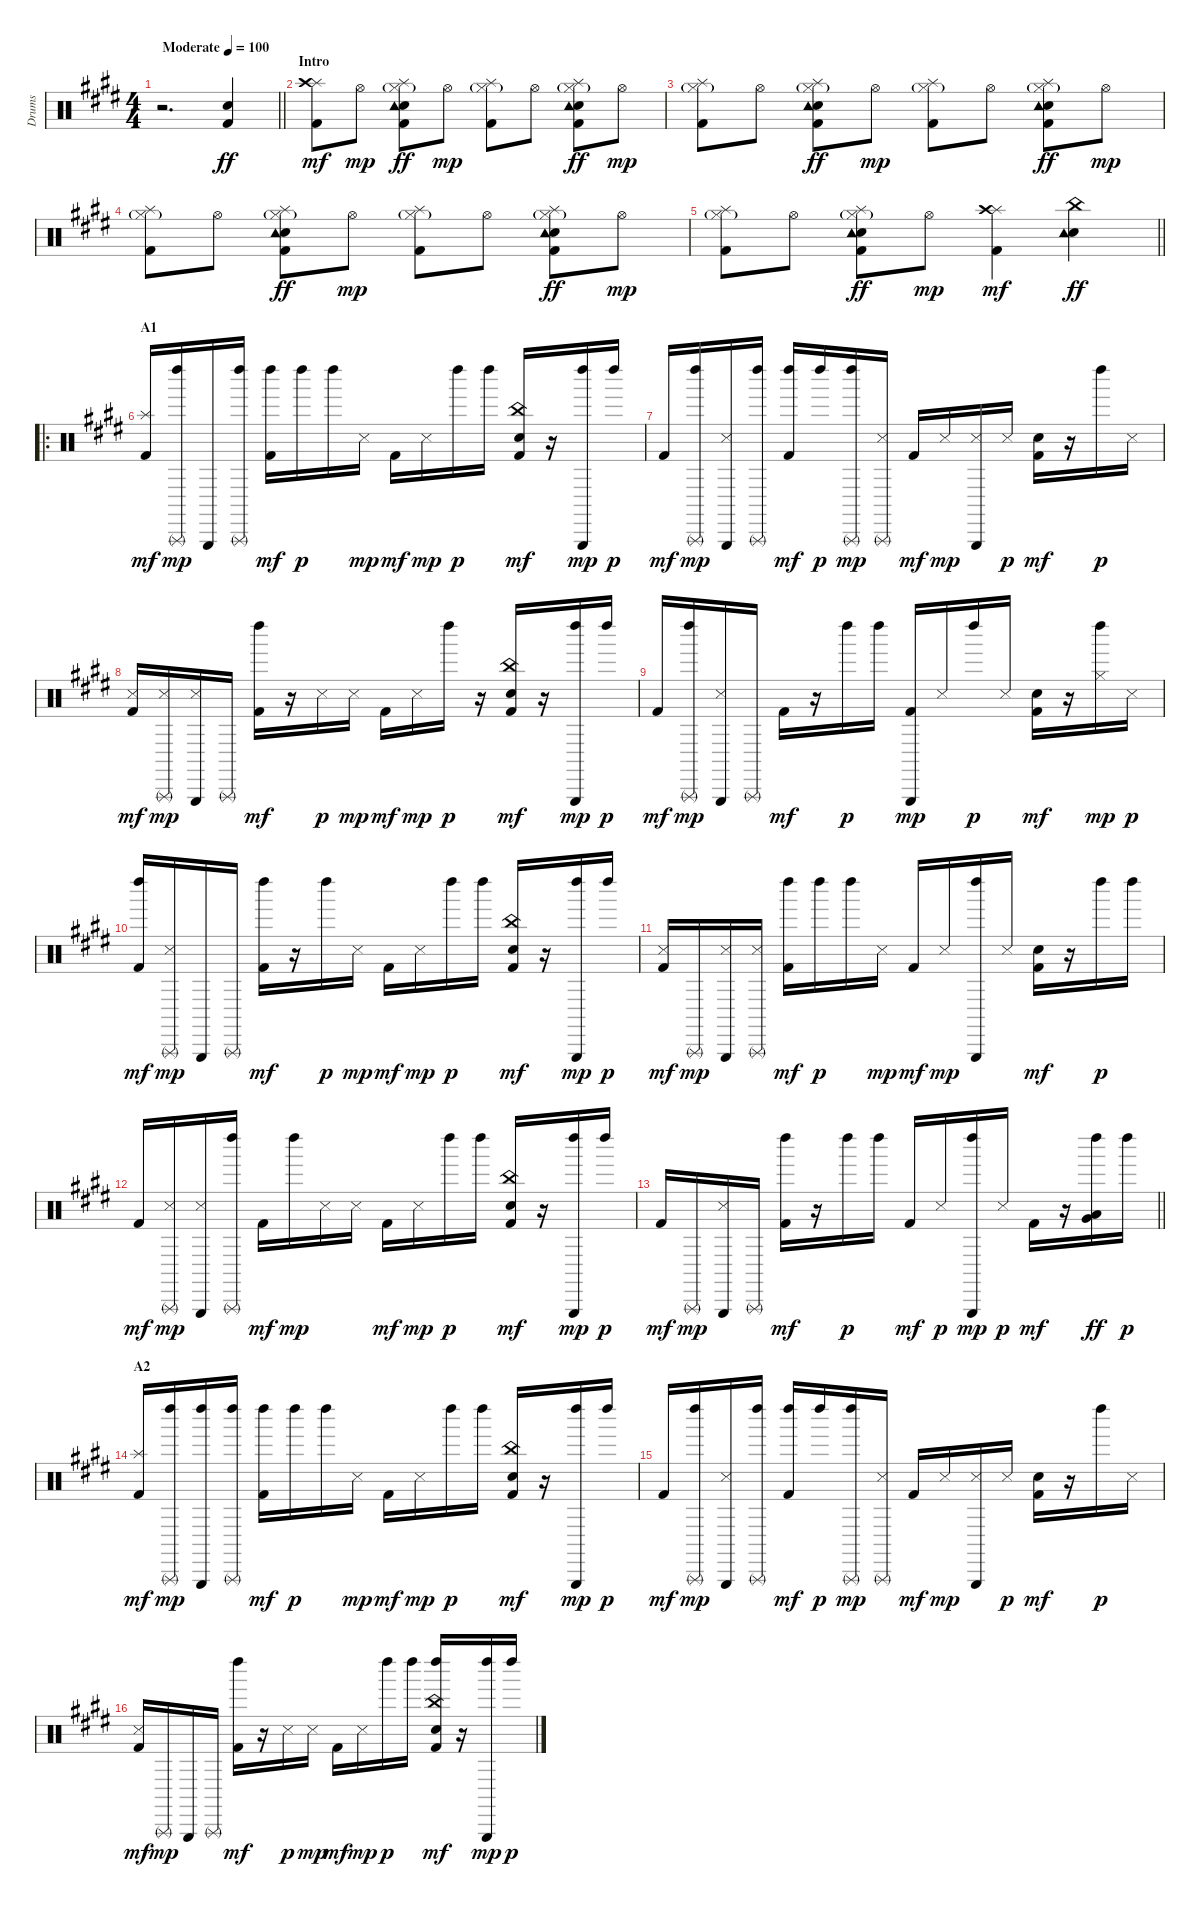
\track ("Drums" "Drums") {instrument percussion}
\staff {score}
\articulation defaults
\ts (4 4)
\tempo (100 "Moderate")
\clef neutral
\barLineRight lightlight
\ks e
r.2{d dy ff} ("Hand Clap (hit)" "Kick (hit) 2").4 |
\section ("" "Intro")
("Splash (hit)" "Crash high (hit)" "Kick (hit) 2").8{dy mf} "Hi-Hat (open)".8{dy mp} ("Splash (hit)" "Hi-Hat (closed)"{g} "Hand Clap (hit)" "Kick (hit) 2" "Tambourine (hit)").8{dy ff} "Hi-Hat (open)".8{dy mp} ("Splash (hit)" "Hi-Hat (closed)"{g} "Kick (hit) 2").8 "Hi-Hat (open)".8 ("Splash (hit)" "Hi-Hat (closed)"{g} "Hand Clap (hit)" "Kick (hit) 2" "Tambourine (hit)").8{dy ff} "Hi-Hat (open)".8{dy mp} |
("Splash (hit)" "Hi-Hat (closed)"{g} "Kick (hit) 2").8 "Hi-Hat (open)".8 ("Splash (hit)" "Hi-Hat (closed)"{g} "Hand Clap (hit)" "Kick (hit) 2" "Tambourine (hit)").8{dy ff} "Hi-Hat (open)".8{dy mp} ("Splash (hit)" "Hi-Hat (closed)"{g} "Kick (hit) 2").8 "Hi-Hat (open)".8 ("Splash (hit)" "Hi-Hat (closed)"{g} "Hand Clap (hit)" "Kick (hit) 2" "Tambourine (hit)").8{dy ff} "Hi-Hat (open)".8{dy mp} |
("Splash (hit)" "Hi-Hat (closed)"{g} "Kick (hit) 2").8 "Hi-Hat (open)".8 ("Splash (hit)" "Hi-Hat (closed)"{g} "Hand Clap (hit)" "Kick (hit) 2" "Tambourine (hit)").8{dy ff} "Hi-Hat (open)".8{dy mp} ("Splash (hit)" "Hi-Hat (closed)"{g} "Kick (hit) 2").8 "Hi-Hat (open)".8 ("Splash (hit)" "Hi-Hat (closed)"{g} "Hand Clap (hit)" "Kick (hit) 2" "Tambourine (hit)").8{dy ff} "Hi-Hat (open)".8{dy mp} |
\barLineRight lightlight
("Splash (hit)" "Hi-Hat (closed)"{g} "Kick (hit) 2").8 "Hi-Hat (open)".8 ("Splash (hit)" "Hi-Hat (closed)"{g} "Hand Clap (hit)" "Kick (hit) 2" "Tambourine (hit)").8{dy ff} "Hi-Hat (open)".8{dy mp} ("Splash (hit)" "Crash high (hit)" "Kick (hit) 2").4{dy mf} ("China (hit)" "Hand Clap (hit)" "Tambourine (hit)").4{dy ff} |
\ro
\section ("" "A1")
("Splash (hit)" "Kick (hit) 2").16{dy mf} ("Left Maraca (hit)" "Triangle (rnute)").16{dy mp} "Triangle (hit)".16 ("Left Maraca (hit)" "Triangle (rnute)").16 ("Left Maraca (hit)" "Kick (hit) 2").16{dy mf} "Left Maraca (hit)".16{dy p} "Left Maraca (hit)".16 "Metronome (hit)".16{dy mp} "Kick (hit) 2".16{dy mf} "Metronome (hit)".16{dy mp} "Left Maraca (hit)".16{dy p} "Left Maraca (hit)".16 ("China (hit)" "Hand Clap (hit)" "Kick (hit) 2").16{dy mf} r.16 ("Left Maraca (hit)" "Triangle (hit)").16{dy mp} "Left Maraca (hit)".16{dy p} |
"Kick (hit) 2".16{dy mf} ("Left Maraca (hit)" "Triangle (rnute)").16{dy mp} ("Metronome (hit)" "Triangle (hit)").16 ("Left Maraca (hit)" "Triangle (rnute)").16 ("Left Maraca (hit)" "Kick (hit) 2").16{dy mf} "Left Maraca (hit)".16{dy p} ("Left Maraca (hit)" "Triangle (rnute)").16{dy mp} ("Metronome (hit)" "Triangle (rnute)").16 "Kick (hit) 2".16{dy mf} "Metronome (hit)".16{dy mp} ("Metronome (hit)" "Triangle (hit)").16 "Metronome (hit)".16{dy p} ("Hand Clap (hit)" "Kick (hit) 2").16{dy mf} r.16 "Left Maraca (hit)".16{dy p} "Metronome (hit)".16 |
("Metronome (hit)" "Kick (hit) 2").16{dy mf} ("Metronome (hit)" "Triangle (rnute)").16{dy mp} ("Metronome (hit)" "Triangle (hit)").16 "Triangle (rnute)".16 ("Left Maraca (hit)" "Kick (hit) 2").16{dy mf} r.16 "Metronome (hit)".16{dy p} "Metronome (hit)".16{dy mp} "Kick (hit) 2".16{dy mf} "Metronome (hit)".16{dy mp} "Left Maraca (hit)".16{dy p} r.16 ("China (hit)" "Hand Clap (hit)" "Kick (hit) 2").16{dy mf} r.16 ("Left Maraca (hit)" "Triangle (hit)").16{dy mp} "Left Maraca (hit)".16{dy p} |
"Kick (hit) 2".16{dy mf} ("Left Maraca (hit)" "Triangle (rnute)").16{dy mp} ("Metronome (hit)" "Triangle (hit)").16 "Triangle (rnute)".16 "Kick (hit) 2".16{dy mf} r.16 "Left Maraca (hit)".16{dy p} "Left Maraca (hit)".16 ("Kick (hit) 2" "Triangle (hit)").16{dy mp} "Metronome (hit)".16 "Left Maraca (hit)".16{dy p} "Metronome (hit)".16 ("Hand Clap (hit)" "Kick (hit) 2").16{dy mf} r.16 ("Left Maraca (hit)" "Hi-Hat (closed)").16{dy mp} "Metronome (hit)".16{dy p} |
("Left Maraca (hit)" "Kick (hit) 2").16{dy mf} ("Metronome (hit)" "Triangle (rnute)").16{dy mp} "Triangle (hit)".16 "Triangle (rnute)".16 ("Left Maraca (hit)" "Kick (hit) 2").16{dy mf} r.16 "Left Maraca (hit)".16{dy p} "Metronome (hit)".16{dy mp} "Kick (hit) 2".16{dy mf} "Metronome (hit)".16{dy mp} "Left Maraca (hit)".16{dy p} "Left Maraca (hit)".16 ("China (hit)" "Hand Clap (hit)" "Kick (hit) 2").16{dy mf} r.16 ("Left Maraca (hit)" "Triangle (hit)").16{dy mp} "Left Maraca (hit)".16{dy p} |
("Metronome (hit)" "Kick (hit) 2").16{dy mf} "Triangle (rnute)".16{dy mp} ("Metronome (hit)" "Triangle (hit)").16 ("Metronome (hit)" "Triangle (rnute)").16 ("Left Maraca (hit)" "Kick (hit) 2").16{dy mf} "Left Maraca (hit)".16{dy p} "Left Maraca (hit)".16 "Metronome (hit)".16{dy mp} "Kick (hit) 2".16{dy mf} "Metronome (hit)".16{dy mp} ("Left Maraca (hit)" "Triangle (hit)").16 "Metronome (hit)".16 ("Hand Clap (hit)" "Kick (hit) 2").16{dy mf} r.16 "Left Maraca (hit)".16{dy p} "Left Maraca (hit)".16 |
"Kick (hit) 2".16{dy mf} ("Metronome (hit)" "Triangle (rnute)").16{dy mp} ("Metronome (hit)" "Triangle (hit)").16 ("Left Maraca (hit)" "Triangle (rnute)").16 "Kick (hit) 2".16{dy mf} "Left Maraca (hit)".16{dy mp} "Metronome (hit)".16 "Metronome (hit)".16 "Kick (hit) 2".16{dy mf} "Metronome (hit)".16{dy mp} "Left Maraca (hit)".16{dy p} "Left Maraca (hit)".16 ("China (hit)" "Hand Clap (hit)" "Kick (hit) 2").16{dy mf} r.16 ("Left Maraca (hit)" "Triangle (hit)").16{dy mp} "Left Maraca (hit)".16{dy p} |
\barLineRight lightlight "Kick (hit) 2".16{dy mf} "Triangle (rnute)".16{dy mp}
("Metronome (hit)" "Triangle (hit)").16 "Triangle (rnute)".16 ("Left Maraca (hit)" "Kick (hit) 2").16{dy mf} r.16 "Left Maraca (hit)".16{dy p} "Left Maraca (hit)".16 "Kick (hit) 2".16{dy mf} "Metronome (hit)".16{dy p} ("Left Maraca (hit)" "Triangle (hit)").16{dy mp} "Metronome (hit)".16{dy p} "Kick (hit) 2".16{dy mf} r.16 ("Left Maraca (hit)" "Low Tom (hit)" "Very Low Tom (hit)").16{dy ff} "Left Maraca (hit)".16{dy p} |
\section ("" "A2")
("Splash (hit)" "Kick (hit) 2").16{dy mf} ("Left Maraca (hit)" "Triangle (rnute)").16{dy mp} ("Left Maraca (hit)" "Triangle (hit)").16 ("Left Maraca (hit)" "Triangle (rnute)").16 ("Left Maraca (hit)" "Kick (hit) 2").16{dy mf} "Left Maraca (hit)".16{dy p} "Left Maraca (hit)".16 "Metronome (hit)".16{dy mp} "Kick (hit) 2".16{dy mf} "Metronome (hit)".16{dy mp} "Left Maraca (hit)".16{dy p} "Left Maraca (hit)".16 ("China (hit)" "Hand Clap (hit)" "Kick (hit) 2").16{dy mf} r.16 ("Left Maraca (hit)" "Triangle (hit)").16{dy mp} "Left Maraca (hit)".16{dy p} |
"Kick (hit) 2".16{dy mf} ("Left Maraca (hit)" "Triangle (rnute)").16{dy mp} ("Metronome (hit)" "Triangle (hit)").16 ("Left Maraca (hit)" "Triangle (rnute)").16 ("Left Maraca (hit)" "Kick (hit) 2").16{dy mf} "Left Maraca (hit)".16{dy p} ("Left Maraca (hit)" "Triangle (rnute)").16{dy mp} ("Metronome (hit)" "Triangle (rnute)").16 "Kick (hit) 2".16{dy mf} "Metronome (hit)".16{dy mp} ("Metronome (hit)" "Triangle (hit)").16 "Metronome (hit)".16{dy p} ("Hand Clap (hit)" "Kick (hit) 2").16{dy mf} r.16 "Left Maraca (hit)".16{dy p} "Metronome (hit)".16 |
("Metronome (hit)" "Kick (hit) 2").16{dy mf} "Triangle (rnute)".16{dy mp} "Triangle (hit)".16 "Triangle (rnute)".16 ("Left Maraca (hit)" "Kick (hit) 2").16{dy mf} r.16 "Metronome (hit)".16{dy p} "Metronome (hit)".16{dy mp} "Kick (hit) 2".16{dy mf} "Metronome (hit)".16{dy mp} "Left Maraca (hit)".16{dy p} "Left Maraca (hit)".16 ("Left Maraca (hit)" "China (hit)" "Hand Clap (hit)" "Kick (hit) 2").16{dy mf} r.16 ("Left Maraca (hit)" "Triangle (hit)").16{dy mp} "Left Maraca (hit)".16{dy p}
